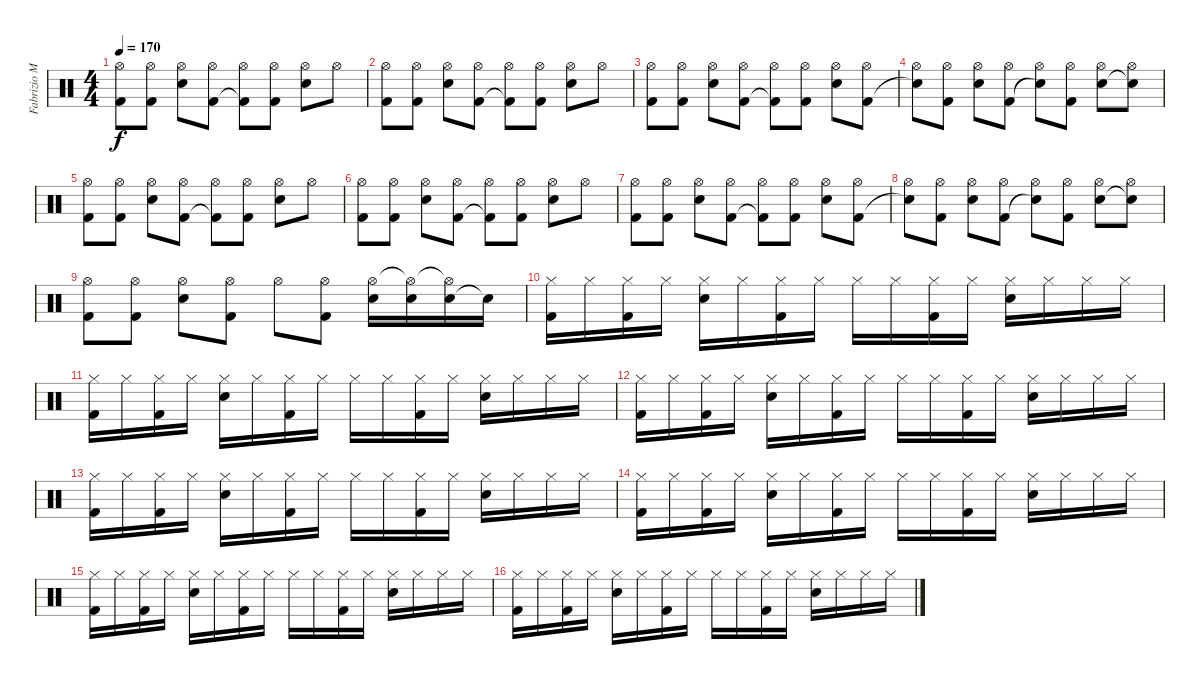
\track ("Fabrizio Moretti" "Fabrizio M") {instrument percussion}
\staff {score}
\articulation defaults
\ts (4 4)
\tempo 170
\clef neutral
\ks c
("Hi-Hat (open)" "Kick (hit) 2").8{dy f} ("Hi-Hat (open)" "Kick (hit) 2").8 ("Hi-Hat (open)" "Electric Snare (hit)").8 ("Hi-Hat (open)" "Kick (hit) 2").8 ("Hi-Hat (open)" "Kick (hit) 2"{t}).8 ("Hi-Hat (open)" "Kick (hit) 2").8 ("Hi-Hat (open)" "Electric Snare (hit)").8 "Hi-Hat (open)".8 |
("Hi-Hat (open)" "Kick (hit) 2").8 ("Hi-Hat (open)" "Kick (hit) 2").8 ("Hi-Hat (open)" "Electric Snare (hit)").8 ("Hi-Hat (open)" "Kick (hit) 2").8 ("Hi-Hat (open)" "Kick (hit) 2"{t}).8 ("Hi-Hat (open)" "Kick (hit) 2").8 ("Hi-Hat (open)" "Electric Snare (hit)").8 "Hi-Hat (open)".8 |
("Hi-Hat (open)" "Kick (hit) 2").8 ("Hi-Hat (open)" "Kick (hit) 2").8 ("Hi-Hat (open)" "Electric Snare (hit)").8 ("Hi-Hat (open)" "Kick (hit) 2").8 ("Hi-Hat (open)" "Kick (hit) 2"{t}).8 ("Hi-Hat (open)" "Kick (hit) 2").8 ("Hi-Hat (open)" "Electric Snare (hit)").8 ("Hi-Hat (open)" "Kick (hit) 2").8 |
("Hi-Hat (open)" "Snare (hit)"{t}).8 ("Hi-Hat (open)" "Kick (hit) 2").8 ("Hi-Hat (open)" "Electric Snare (hit)").8 ("Hi-Hat (open)" "Kick (hit) 2").8 ("Hi-Hat (open)" "Snare (hit)"{t}).8 ("Hi-Hat (open)" "Kick (hit) 2").8 ("Hi-Hat (open)" "Electric Snare (hit)").8 ("Hi-Hat (open)" "Snare (hit)"{t}).8 |
("Hi-Hat (open)" "Kick (hit) 2").8 ("Hi-Hat (open)" "Kick (hit) 2").8 ("Hi-Hat (open)" "Electric Snare (hit)").8 ("Hi-Hat (open)" "Kick (hit) 2").8 ("Hi-Hat (open)" "Kick (hit) 2"{t}).8 ("Hi-Hat (open)" "Kick (hit) 2").8 ("Hi-Hat (open)" "Electric Snare (hit)").8 "Hi-Hat (open)".8 |
("Hi-Hat (open)" "Kick (hit) 2").8 ("Hi-Hat (open)" "Kick (hit) 2").8 ("Hi-Hat (open)" "Electric Snare (hit)").8 ("Hi-Hat (open)" "Kick (hit) 2").8 ("Hi-Hat (open)" "Kick (hit) 2"{t}).8 ("Hi-Hat (open)" "Kick (hit) 2").8 ("Hi-Hat (open)" "Electric Snare (hit)").8 "Hi-Hat (open)".8 |
("Hi-Hat (open)" "Kick (hit) 2").8 ("Hi-Hat (open)" "Kick (hit) 2").8 ("Hi-Hat (open)" "Electric Snare (hit)").8 ("Hi-Hat (open)" "Kick (hit) 2").8 ("Hi-Hat (open)" "Kick (hit) 2"{t}).8 ("Hi-Hat (open)" "Kick (hit) 2").8 ("Hi-Hat (open)" "Electric Snare (hit)").8 ("Hi-Hat (open)" "Kick (hit) 2").8 |
("Hi-Hat (open)" "Snare (hit)"{t}).8 ("Hi-Hat (open)" "Kick (hit) 2").8 ("Hi-Hat (open)" "Electric Snare (hit)").8 ("Hi-Hat (open)" "Kick (hit) 2").8 ("Hi-Hat (open)" "Snare (hit)"{t}).8 ("Hi-Hat (open)" "Kick (hit) 2").8 ("Hi-Hat (open)" "Electric Snare (hit)").8 ("Hi-Hat (open)" "Snare (hit)"{t}).8 |
("Kick (hit) 2" "Hi-Hat (open)").8 ("Kick (hit) 2" "Hi-Hat (open)").8 ("Electric Snare (hit)" "Hi-Hat (open)").8 ("Kick (hit) 2" "Hi-Hat (open)").8 "Hi-Hat (open)".8 ("Kick (hit) 2" "Hi-Hat (open)").8 ("Electric Snare (hit)" "Hi-Hat (open)").16 ("Electric Snare (hit)" "Hi-Hat (open)"{t}).16 ("Electric Snare (hit)" "Hi-Hat (open)"{t}).16 "Snare (hit)"{t}.16 |
("Hi-Hat (closed)" "Kick (hit) 2").16 "Hi-Hat (closed)".16 ("Hi-Hat (closed)" "Kick (hit) 2").16 "Hi-Hat (closed)".16 ("Hi-Hat (closed)" "Electric Snare (hit)").16 "Hi-Hat (closed)".16 ("Hi-Hat (closed)" "Kick (hit) 2").16 "Hi-Hat (closed)".16 "Hi-Hat (closed)".16 "Hi-Hat (closed)".16 ("Hi-Hat (closed)" "Kick (hit) 2").16 "Hi-Hat (closed)".16 ("Hi-Hat (closed)" "Electric Snare (hit)").16 "Hi-Hat (closed)".16 "Hi-Hat (closed)".16 "Hi-Hat (closed)".16 |
("Hi-Hat (closed)" "Kick (hit) 2").16 "Hi-Hat (closed)".16 ("Hi-Hat (closed)" "Kick (hit) 2").16 "Hi-Hat (closed)".16 ("Hi-Hat (closed)" "Electric Snare (hit)").16 "Hi-Hat (closed)".16 ("Hi-Hat (closed)" "Kick (hit) 2").16 "Hi-Hat (closed)".16 "Hi-Hat (closed)".16 "Hi-Hat (closed)".16 ("Hi-Hat (closed)" "Kick (hit) 2").16 "Hi-Hat (closed)".16 ("Hi-Hat (closed)" "Electric Snare (hit)").16 "Hi-Hat (closed)".16 "Hi-Hat (closed)".16 "Hi-Hat (closed)".16 |
("Hi-Hat (closed)" "Kick (hit) 2").16 "Hi-Hat (closed)".16 ("Hi-Hat (closed)" "Kick (hit) 2").16 "Hi-Hat (closed)".16 ("Hi-Hat (closed)" "Electric Snare (hit)").16 "Hi-Hat (closed)".16 ("Hi-Hat (closed)" "Kick (hit) 2").16 "Hi-Hat (closed)".16 "Hi-Hat (closed)".16 "Hi-Hat (closed)".16 ("Hi-Hat (closed)" "Kick (hit) 2").16 "Hi-Hat (closed)".16 ("Hi-Hat (closed)" "Electric Snare (hit)").16 "Hi-Hat (closed)".16 "Hi-Hat (closed)".16 "Hi-Hat (closed)".16 |
("Hi-Hat (closed)" "Kick (hit) 2").16 "Hi-Hat (closed)".16 ("Hi-Hat (closed)" "Kick (hit) 2").16 "Hi-Hat (closed)".16 ("Hi-Hat (closed)" "Electric Snare (hit)").16 "Hi-Hat (closed)".16 ("Hi-Hat (closed)" "Kick (hit) 2").16 "Hi-Hat (closed)".16 "Hi-Hat (closed)".16 "Hi-Hat (closed)".16 ("Hi-Hat (closed)" "Kick (hit) 2").16 "Hi-Hat (closed)".16 ("Hi-Hat (closed)" "Electric Snare (hit)").16 "Hi-Hat (closed)".16 "Hi-Hat (closed)".16 "Hi-Hat (closed)".16 |
("Hi-Hat (closed)" "Kick (hit) 2").16 "Hi-Hat (closed)".16 ("Hi-Hat (closed)" "Kick (hit) 2").16 "Hi-Hat (closed)".16 ("Hi-Hat (closed)" "Electric Snare (hit)").16 "Hi-Hat (closed)".16 ("Hi-Hat (closed)" "Kick (hit) 2").16 "Hi-Hat (closed)".16 "Hi-Hat (closed)".16 "Hi-Hat (closed)".16 ("Hi-Hat (closed)" "Kick (hit) 2").16 "Hi-Hat (closed)".16 ("Hi-Hat (closed)" "Electric Snare (hit)").16 "Hi-Hat (closed)".16 "Hi-Hat (closed)".16 "Hi-Hat (closed)".16 |
("Hi-Hat (closed)" "Kick (hit) 2").16 "Hi-Hat (closed)".16 ("Hi-Hat (closed)" "Kick (hit) 2").16 "Hi-Hat (closed)".16 ("Hi-Hat (closed)" "Electric Snare (hit)").16 "Hi-Hat (closed)".16 ("Hi-Hat (closed)" "Kick (hit) 2").16 "Hi-Hat (closed)".16 "Hi-Hat (closed)".16 "Hi-Hat (closed)".16 ("Hi-Hat (closed)" "Kick (hit) 2").16 "Hi-Hat (closed)".16 ("Hi-Hat (closed)" "Electric Snare (hit)").16 "Hi-Hat (closed)".16 "Hi-Hat (closed)".16 "Hi-Hat (closed)".16 |
("Hi-Hat (closed)" "Kick (hit) 2").16 "Hi-Hat (closed)".16 ("Hi-Hat (closed)" "Kick (hit) 2").16 "Hi-Hat (closed)".16 ("Hi-Hat (closed)" "Electric Snare (hit)").16 "Hi-Hat (closed)".16 ("Hi-Hat (closed)" "Kick (hit) 2").16 "Hi-Hat (closed)".16 "Hi-Hat (closed)".16 "Hi-Hat (closed)".16 ("Hi-Hat (closed)" "Kick (hit) 2").16 "Hi-Hat (closed)".16 ("Hi-Hat (closed)" "Electric Snare (hit)").16 "Hi-Hat (closed)".16 "Hi-Hat (closed)".16 "Hi-Hat (closed)".16
